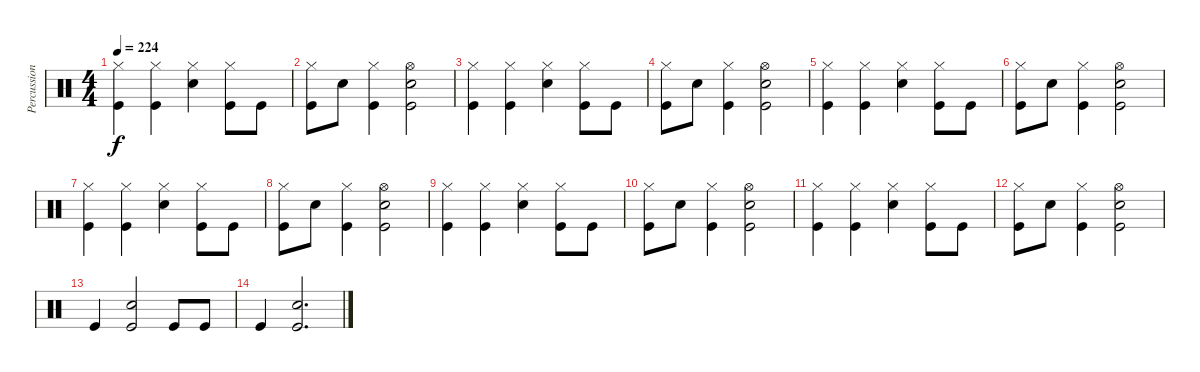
\track ("Percussion" "Percussion") {instrument percussion}
\staff {score}
\articulation defaults
\ts (4 4)
\tempo 224
\clef neutral
\ks c
("Hi-Hat (closed)" "Kick (hit)").4{dy f} ("Hi-Hat (closed)" "Kick (hit)").4 ("Hi-Hat (closed)" "Electric Snare (hit)").4 ("Hi-Hat (closed)" "Kick (hit)").8 "Kick (hit)".8 |
("Hi-Hat (closed)" "Kick (hit)").8 "Electric Snare (hit)".8 ("Hi-Hat (closed)" "Kick (hit)").4 ("Hi-Hat (open)" "Electric Snare (hit)" "Kick (hit)").2 |
("Hi-Hat (closed)" "Kick (hit)").4 ("Hi-Hat (closed)" "Kick (hit)").4 ("Hi-Hat (closed)" "Electric Snare (hit)").4 ("Hi-Hat (closed)" "Kick (hit)").8 "Kick (hit)".8 |
("Hi-Hat (closed)" "Kick (hit)").8 "Electric Snare (hit)".8 ("Hi-Hat (closed)" "Kick (hit)").4 ("Hi-Hat (open)" "Electric Snare (hit)" "Kick (hit)").2 |
("Hi-Hat (closed)" "Kick (hit)").4 ("Hi-Hat (closed)" "Kick (hit)").4 ("Hi-Hat (closed)" "Electric Snare (hit)").4 ("Hi-Hat (closed)" "Kick (hit)").8 "Kick (hit)".8 |
("Hi-Hat (closed)" "Kick (hit)").8 "Electric Snare (hit)".8 ("Hi-Hat (closed)" "Kick (hit)").4 ("Hi-Hat (open)" "Electric Snare (hit)" "Kick (hit)").2 |
("Hi-Hat (closed)" "Kick (hit)").4 ("Hi-Hat (closed)" "Kick (hit)").4 ("Hi-Hat (closed)" "Electric Snare (hit)").4 ("Hi-Hat (closed)" "Kick (hit)").8 "Kick (hit)".8 |
("Hi-Hat (closed)" "Kick (hit)").8 "Electric Snare (hit)".8 ("Hi-Hat (closed)" "Kick (hit)").4 ("Hi-Hat (open)" "Electric Snare (hit)" "Kick (hit)").2 |
("Hi-Hat (closed)" "Kick (hit)").4 ("Hi-Hat (closed)" "Kick (hit)").4 ("Hi-Hat (closed)" "Electric Snare (hit)").4 ("Hi-Hat (closed)" "Kick (hit)").8 "Kick (hit)".8 |
("Hi-Hat (closed)" "Kick (hit)").8 "Electric Snare (hit)".8 ("Hi-Hat (closed)" "Kick (hit)").4 ("Hi-Hat (open)" "Electric Snare (hit)" "Kick (hit)").2 |
("Hi-Hat (closed)" "Kick (hit)").4 ("Hi-Hat (closed)" "Kick (hit)").4 ("Hi-Hat (closed)" "Electric Snare (hit)").4 ("Hi-Hat (closed)" "Kick (hit)").8 "Kick (hit)".8 |
("Hi-Hat (closed)" "Kick (hit)").8 "Electric Snare (hit)".8 ("Hi-Hat (closed)" "Kick (hit)").4 ("Hi-Hat (open)" "Electric Snare (hit)" "Kick (hit)").2 |
"Kick (hit)".4 ("Electric Snare (hit)" "Kick (hit)").2 "Kick (hit)".8 "Kick (hit)".8 |
"Kick (hit)".4 ("Electric Snare (hit)" "Kick (hit)").2{d}
